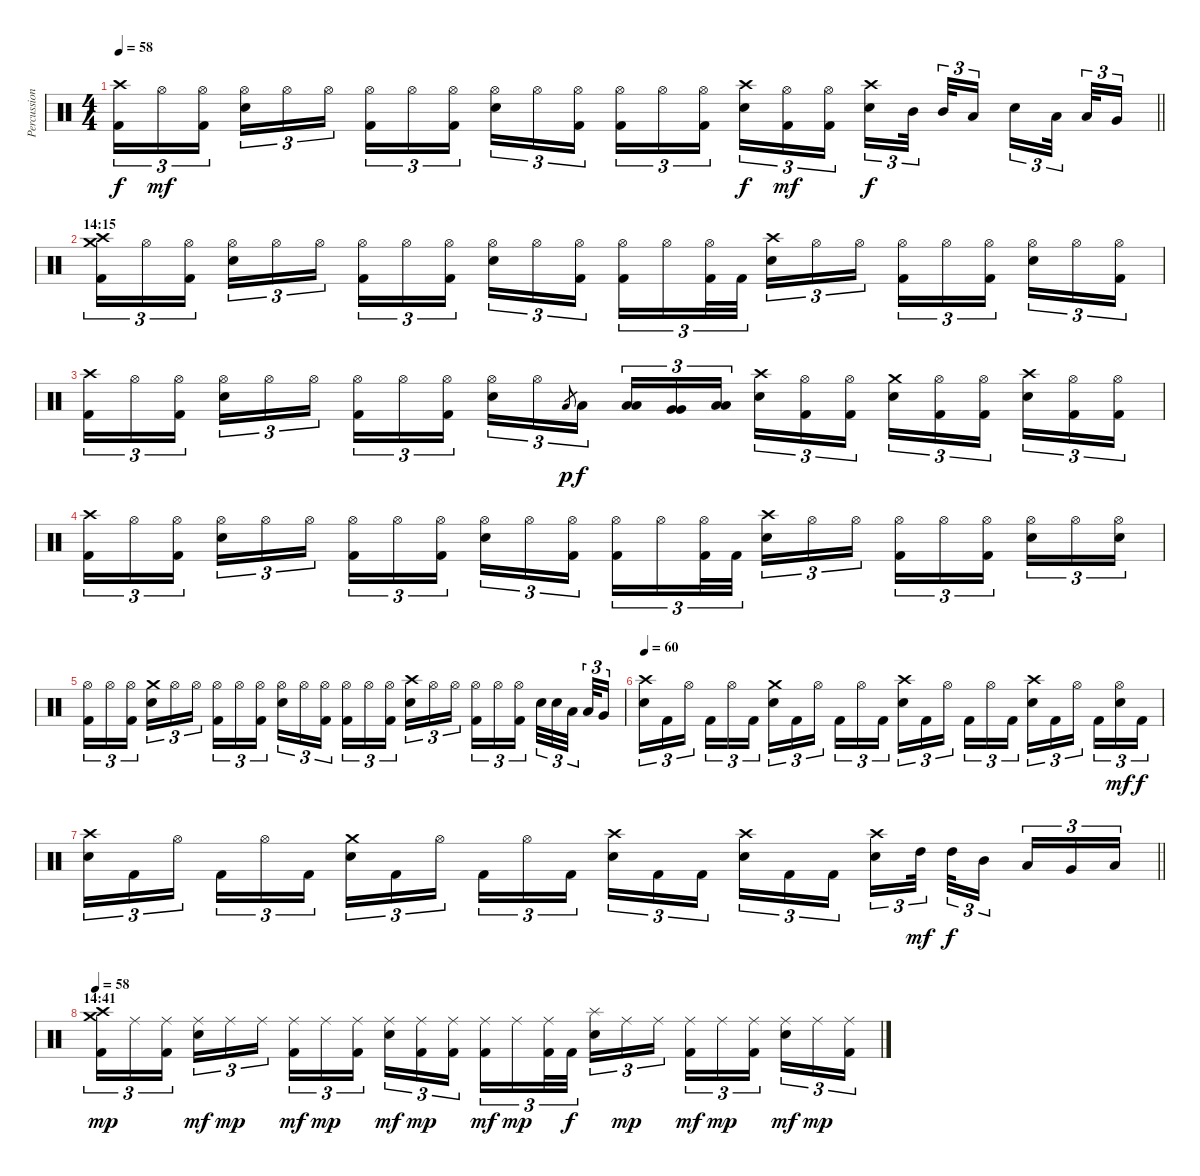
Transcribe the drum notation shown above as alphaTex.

\track ("Percussions" "Percussion") {instrument percussion}
\staff {score}
\articulation defaults
\ts (4 4)
\tempo 58
\clef neutral
\barLineRight lightlight
\ks c
("Crash high (hit)" "Kick (hit) 2").16{tu (3 2) dy f} "Hi-Hat (open)".16{tu (3 2) dy mf} ("Hi-Hat (open)" "Kick (hit) 2").16{tu (3 2) beam splitsecondary} ("Hi-Hat (open)" "Snare (hit) 2").16{tu (3 2)} "Hi-Hat (open)".16{tu (3 2)} "Hi-Hat (open)".16{tu (3 2)} ("Hi-Hat (open)" "Kick (hit) 2").16{tu (3 2)} "Hi-Hat (open)".16{tu (3 2)} ("Hi-Hat (open)" "Kick (hit) 2").16{tu (3 2) beam splitsecondary} ("Hi-Hat (open)" "Snare (hit) 2").16{tu (3 2)} "Hi-Hat (open)".16{tu (3 2)} ("Hi-Hat (open)" "Kick (hit) 2").16{tu (3 2)} ("Hi-Hat (open)" "Kick (hit) 2").16{tu (3 2)} "Hi-Hat (open)".16{tu (3 2)} ("Hi-Hat (open)" "Kick (hit) 2").16{tu (3 2) beam splitsecondary} ("Crash high (hit)" "Snare (hit) 2").16{tu (3 2) dy f} ("Hi-Hat (open)" "Kick (hit) 2").16{tu (3 2) dy mf} ("Hi-Hat (open)" "Kick (hit) 2").16{tu (3 2)} ("Crash high (hit)" "Snare (hit) 2").16{tu (3 2) dy f} "Mid Tom (hit)".32{tu (3 2) beam splitsecondary} "Mid Tom (hit)".32{tu (3 2)} "Low Tom (hit)".16{tu (3 2) beam splitsecondary} "Snare (hit) 2".16{tu (3 2)} "Low Tom (hit)".32{tu (3 2) beam splitsecondary} "Low Tom (hit)".32{tu (3 2)} "Very Low Tom (hit)".16{tu (3 2)} |
\section ("" "14:15")
("Crash medium (hit)" "Crash high (hit)" "Kick (hit) 2").16{tu (3 2)} "Hi-Hat (open)".16{tu (3 2)} ("Hi-Hat (open)" "Kick (hit) 2").16{tu (3 2) beam splitsecondary} ("Hi-Hat (open)" "Snare (hit) 2").16{tu (3 2)} "Hi-Hat (open)".16{tu (3 2)} "Hi-Hat (open)".16{tu (3 2)} ("Hi-Hat (open)" "Kick (hit) 2").16{tu (3 2)} "Hi-Hat (open)".16{tu (3 2)} ("Hi-Hat (open)" "Kick (hit) 2").16{tu (3 2) beam splitsecondary} ("Hi-Hat (open)" "Snare (hit) 2").16{tu (3 2)} "Hi-Hat (open)".16{tu (3 2)} ("Hi-Hat (open)" "Kick (hit) 2").16{tu (3 2)} ("Hi-Hat (open)" "Kick (hit) 2").16{tu (3 2)} "Hi-Hat (open)".16{tu (3 2)} ("Hi-Hat (open)" "Kick (hit) 2").32{tu (3 2)} "Kick (hit) 2".32{tu (3 2) beam splitsecondary} ("Crash high (hit)" "Snare (hit) 2").16{tu (3 2)} "Hi-Hat (open)".16{tu (3 2)} "Hi-Hat (open)".16{tu (3 2)} ("Hi-Hat (open)" "Kick (hit) 2").16{tu (3 2)} "Hi-Hat (open)".16{tu (3 2)} ("Hi-Hat (open)" "Kick (hit) 2").16{tu (3 2) beam splitsecondary} ("Hi-Hat (open)" "Snare (hit) 2").16{tu (3 2)} "Hi-Hat (open)".16{tu (3 2)} ("Hi-Hat (open)" "Kick (hit) 2").16{tu (3 2)} |
("Crash high (hit)" "Kick (hit) 2").16{tu (3 2)} "Hi-Hat (open)".16{tu (3 2)} ("Hi-Hat (open)" "Kick (hit) 2").16{tu (3 2) beam splitsecondary} ("Hi-Hat (open)" "Snare (hit) 2").16{tu (3 2)} "Hi-Hat (open)".16{tu (3 2)} "Hi-Hat (open)".16{tu (3 2)} ("Hi-Hat (open)" "Kick (hit) 2").16{tu (3 2)} "Hi-Hat (open)".16{tu (3 2)} ("Hi-Hat (open)" "Kick (hit) 2").16{tu (3 2) beam splitsecondary} ("Hi-Hat (open)" "Snare (hit) 2").16{tu (3 2)} "Hi-Hat (open)".16{tu (3 2)} "Low Tom (hit)".8{gr dy p} "Low Tom (hit)".16{tu (3 2) dy f} ("Low Tom (hit)" "Low Tom (hit)").16{tu (3 2)} ("Very Low Tom (hit)" "Very Low Tom (hit)").16{tu (3 2)} ("Low Floor Tom (hit)" "Low Floor Tom (hit)").16{tu (3 2) beam splitsecondary} ("Crash high (hit)" "Snare (hit) 2").16{tu (3 2)} ("Hi-Hat (open)" "Kick (hit) 2").16{tu (3 2)} ("Hi-Hat (open)" "Kick (hit) 2").16{tu (3 2)} ("Crash medium (hit)" "Snare (hit) 2").16{tu (3 2)} ("Hi-Hat (open)" "Kick (hit) 2").16{tu (3 2)} ("Hi-Hat (open)" "Kick (hit) 2").16{tu (3 2) beam splitsecondary} ("Crash high (hit)" "Snare (hit) 2").16{tu (3 2)} ("Hi-Hat (open)" "Kick (hit) 2").16{tu (3 2)} ("Hi-Hat (open)" "Kick (hit) 2").16{tu (3 2)} |
("Crash high (hit)" "Kick (hit) 2").16{tu (3 2)} "Hi-Hat (open)".16{tu (3 2)} ("Hi-Hat (open)" "Kick (hit) 2").16{tu (3 2) beam splitsecondary} ("Hi-Hat (open)" "Snare (hit) 2").16{tu (3 2)} "Hi-Hat (open)".16{tu (3 2)} "Hi-Hat (open)".16{tu (3 2)} ("Hi-Hat (open)" "Kick (hit) 2").16{tu (3 2)} "Hi-Hat (open)".16{tu (3 2)} ("Hi-Hat (open)" "Kick (hit) 2").16{tu (3 2) beam splitsecondary} ("Hi-Hat (open)" "Snare (hit) 2").16{tu (3 2)} "Hi-Hat (open)".16{tu (3 2)} ("Hi-Hat (open)" "Kick (hit) 2").16{tu (3 2)} ("Hi-Hat (open)" "Kick (hit) 2").16{tu (3 2)} "Hi-Hat (open)".16{tu (3 2)} ("Hi-Hat (open)" "Kick (hit) 2").32{tu (3 2)} "Kick (hit) 2".32{tu (3 2) beam splitsecondary} ("Crash high (hit)" "Snare (hit) 2").16{tu (3 2)} "Hi-Hat (open)".16{tu (3 2)} "Hi-Hat (open)".16{tu (3 2)} ("Hi-Hat (open)" "Kick (hit) 2").16{tu (3 2)} "Hi-Hat (open)".16{tu (3 2)} ("Hi-Hat (open)" "Kick (hit) 2").16{tu (3 2) beam splitsecondary} ("Hi-Hat (open)" "Snare (hit) 2").16{tu (3 2)} "Hi-Hat (open)".16{tu (3 2)} ("Hi-Hat (open)" "Snare (hit) 2").16{tu (3 2)} |
("Hi-Hat (open)" "Kick (hit) 2").16{tu (3 2)} "Hi-Hat (open)".16{tu (3 2)} ("Hi-Hat (open)" "Kick (hit) 2").16{tu (3 2) beam splitsecondary} ("Crash medium (hit)" "Snare (hit) 2").16{tu (3 2)} "Hi-Hat (open)".16{tu (3 2)} "Hi-Hat (open)".16{tu (3 2)} ("Hi-Hat (open)" "Kick (hit) 2").16{tu (3 2)} "Hi-Hat (open)".16{tu (3 2)} ("Hi-Hat (open)" "Kick (hit) 2").16{tu (3 2) beam splitsecondary} ("Hi-Hat (open)" "Snare (hit) 2").16{tu (3 2)} "Hi-Hat (open)".16{tu (3 2)} ("Hi-Hat (open)" "Kick (hit) 2").16{tu (3 2)} ("Hi-Hat (open)" "Kick (hit) 2").16{tu (3 2)} "Hi-Hat (open)".16{tu (3 2)} ("Hi-Hat (open)" "Kick (hit) 2").16{tu (3 2) beam splitsecondary} ("Crash high (hit)" "Snare (hit) 2").16{tu (3 2)} "Hi-Hat (open)".16{tu (3 2)} "Hi-Hat (open)".16{tu (3 2)} ("Hi-Hat (open)" "Kick (hit) 2").16{tu (3 2)} "Hi-Hat (open)".16{tu (3 2)} ("Hi-Hat (open)" "Kick (hit) 2").16{tu (3 2) beam splitsecondary} "Snare (hit) 2".32{tu (3 2)} "Snare (hit) 2".32{tu (3 2)} "Low Tom (hit)".32{tu (3 2) beam splitsecondary} "Low Tom (hit)".32{tu (3 2)} "Very Low Tom (hit)".16{tu (3 2)} |
\tempo 60
("Crash high (hit)" "Snare (hit) 2").16{tu (3 2)} "Kick (hit) 2".16{tu (3 2)} "Hi-Hat (open)".16{tu (3 2) beam splitsecondary} "Kick (hit) 2".16{tu (3 2)} "Hi-Hat (open)".16{tu (3 2)} "Kick (hit) 2".16{tu (3 2)} ("Crash medium (hit)" "Snare (hit) 2").16{tu (3 2)} "Kick (hit) 2".16{tu (3 2)} "Hi-Hat (open)".16{tu (3 2) beam splitsecondary} "Kick (hit) 2".16{tu (3 2)} "Hi-Hat (open)".16{tu (3 2)} "Kick (hit) 2".16{tu (3 2)} ("Crash high (hit)" "Snare (hit) 2").16{tu (3 2)} "Kick (hit) 2".16{tu (3 2)} "Hi-Hat (open)".16{tu (3 2) beam splitsecondary} "Kick (hit) 2".16{tu (3 2)} "Hi-Hat (open)".16{tu (3 2)} "Kick (hit) 2".16{tu (3 2)} ("Crash high (hit)" "Snare (hit) 2").16{tu (3 2)} "Kick (hit) 2".16{tu (3 2)} "Hi-Hat (open)".16{tu (3 2) beam splitsecondary} "Kick (hit) 2".16{tu (3 2)} ("Hi-Hat (open)" "Snare (hit) 2").16{tu (3 2) dy mf} "Kick (hit) 2".16{tu (3 2) dy f} |
\barLineRight lightlight
("Crash high (hit)" "Snare (hit) 2").16{tu (3 2)} "Kick (hit) 2".16{tu (3 2)} "Hi-Hat (open)".16{tu (3 2) beam splitsecondary} "Kick (hit) 2".16{tu (3 2)} "Hi-Hat (open)".16{tu (3 2)} "Kick (hit) 2".16{tu (3 2)} ("Crash medium (hit)" "Snare (hit) 2").16{tu (3 2)} "Kick (hit) 2".16{tu (3 2)} "Hi-Hat (open)".16{tu (3 2) beam splitsecondary} "Kick (hit) 2".16{tu (3 2)} "Hi-Hat (open)".16{tu (3 2)} "Kick (hit) 2".16{tu (3 2)} ("Crash high (hit)" "Snare (hit) 2").16{tu (3 2)} "Kick (hit) 2".16{tu (3 2)} "Kick (hit) 2".16{tu (3 2) beam splitsecondary} ("Crash high (hit)" "Snare (hit) 2").16{tu (3 2)} "Kick (hit) 2".16{tu (3 2)} "Kick (hit) 2".16{tu (3 2)} ("Crash high (hit)" "Snare (hit) 2").16{tu (3 2)} "High Tom (hit)".32{tu (3 2) dy mf beam splitsecondary} "High Tom (hit)".32{tu (3 2) dy f} "Mid Tom (hit)".16{tu (3 2) beam splitsecondary} "Low Tom (hit)".16{tu (3 2)} "Very Low Tom (hit)".16{tu (3 2)} "Low Floor Tom (hit)".16{tu (3 2)} |
\section ("" "14:41")
\tempo 58
("Crash medium (hit)" "Crash high (hit)" "Kick (hit) 2").16{tu (3 2) dy mp} "Ride (middle)".16{tu (3 2)} ("Ride (middle)" "Kick (hit) 2").16{tu (3 2) beam splitsecondary} ("Ride (middle)" "Snare (hit) 2").16{tu (3 2) dy mf} "Ride (middle)".16{tu (3 2) dy mp} "Ride (middle)".16{tu (3 2)} ("Ride (middle)" "Kick (hit) 2").16{tu (3 2) dy mf} "Ride (middle)".16{tu (3 2) dy mp} ("Ride (middle)" "Kick (hit) 2").16{tu (3 2) beam splitsecondary} ("Ride (middle)" "Snare (hit) 2").16{tu (3 2) dy mf} ("Ride (middle)" "Kick (hit) 2").16{tu (3 2) dy mp} ("Ride (middle)" "Kick (hit) 2").16{tu (3 2)} ("Ride (middle)" "Kick (hit) 2").16{tu (3 2) dy mf} "Ride (middle)".16{tu (3 2) dy mp} ("Ride (middle)" "Kick (hit) 2").32{tu (3 2)} "Kick (hit) 2".32{tu (3 2) dy f beam splitsecondary} ("Splash (hit)" "Snare (hit) 2").16{tu (3 2)} "Ride (middle)".16{tu (3 2) dy mp} "Ride (middle)".16{tu (3 2)} ("Ride (middle)" "Kick (hit) 2").16{tu (3 2) dy mf} "Ride (middle)".16{tu (3 2) dy mp} ("Ride (middle)" "Kick (hit) 2").16{tu (3 2) beam splitsecondary} ("Ride (middle)" "Snare (hit) 2").16{tu (3 2) dy mf} "Ride (middle)".16{tu (3 2) dy mp} ("Ride (middle)" "Kick (hit) 2").16{tu (3 2)}
